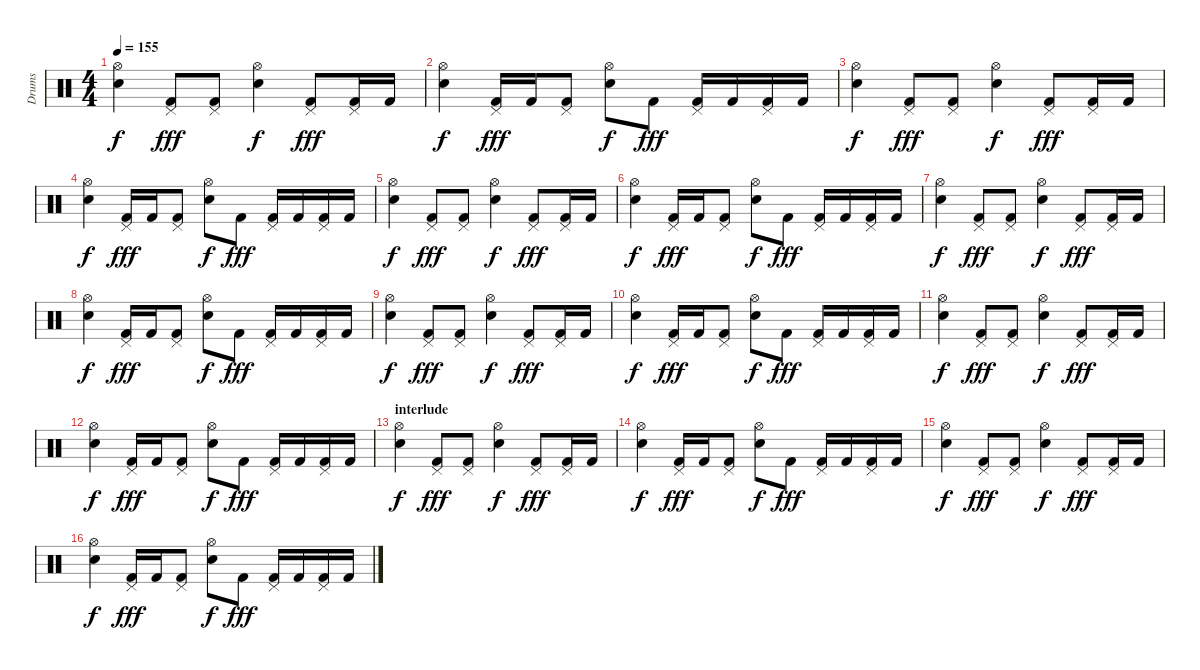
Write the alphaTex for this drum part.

\track ("Drums" "Drums") {instrument percussion}
\staff {score}
\articulation defaults
\ts (4 4)
\tempo 155
\clef neutral
\ks c
("Hi-Hat (open)" "Electric Snare (hit)").4{dy f} ("Pedal Hi-Hat (hit)" "Kick (hit) 2").8{dy fff} ("Pedal Hi-Hat (hit)" "Kick (hit) 2").8 ("Hi-Hat (open)" "Electric Snare (hit)").4{dy f} ("Pedal Hi-Hat (hit)" "Kick (hit) 2").8{dy fff} ("Pedal Hi-Hat (hit)" "Kick (hit) 2").16 "Kick (hit) 2".16 |
("Hi-Hat (open)" "Electric Snare (hit)").4{dy f} ("Pedal Hi-Hat (hit)" "Kick (hit) 2").16{dy fff} "Kick (hit) 2".16 ("Pedal Hi-Hat (hit)" "Kick (hit) 2").8 ("Hi-Hat (open)" "Electric Snare (hit)").8{dy f} "Kick (hit) 2".8{dy fff} ("Pedal Hi-Hat (hit)" "Kick (hit) 2").16 "Kick (hit) 2".16 ("Pedal Hi-Hat (hit)" "Kick (hit) 2").16 "Kick (hit) 2".16 |
("Hi-Hat (open)" "Electric Snare (hit)").4{dy f} ("Pedal Hi-Hat (hit)" "Kick (hit) 2").8{dy fff} ("Pedal Hi-Hat (hit)" "Kick (hit) 2").8 ("Hi-Hat (open)" "Electric Snare (hit)").4{dy f} ("Pedal Hi-Hat (hit)" "Kick (hit) 2").8{dy fff} ("Pedal Hi-Hat (hit)" "Kick (hit) 2").16 "Kick (hit) 2".16 |
("Hi-Hat (open)" "Electric Snare (hit)").4{dy f} ("Pedal Hi-Hat (hit)" "Kick (hit) 2").16{dy fff} "Kick (hit) 2".16 ("Pedal Hi-Hat (hit)" "Kick (hit) 2").8 ("Hi-Hat (open)" "Electric Snare (hit)").8{dy f} "Kick (hit) 2".8{dy fff} ("Pedal Hi-Hat (hit)" "Kick (hit) 2").16 "Kick (hit) 2".16 ("Pedal Hi-Hat (hit)" "Kick (hit) 2").16 "Kick (hit) 2".16 |
("Hi-Hat (open)" "Electric Snare (hit)").4{dy f} ("Pedal Hi-Hat (hit)" "Kick (hit) 2").8{dy fff} ("Pedal Hi-Hat (hit)" "Kick (hit) 2").8 ("Hi-Hat (open)" "Electric Snare (hit)").4{dy f} ("Pedal Hi-Hat (hit)" "Kick (hit) 2").8{dy fff} ("Pedal Hi-Hat (hit)" "Kick (hit) 2").16 "Kick (hit) 2".16 |
("Hi-Hat (open)" "Electric Snare (hit)").4{dy f} ("Pedal Hi-Hat (hit)" "Kick (hit) 2").16{dy fff} "Kick (hit) 2".16 ("Pedal Hi-Hat (hit)" "Kick (hit) 2").8 ("Hi-Hat (open)" "Electric Snare (hit)").8{dy f} "Kick (hit) 2".8{dy fff} ("Pedal Hi-Hat (hit)" "Kick (hit) 2").16 "Kick (hit) 2".16 ("Pedal Hi-Hat (hit)" "Kick (hit) 2").16 "Kick (hit) 2".16 |
("Hi-Hat (open)" "Electric Snare (hit)").4{dy f} ("Pedal Hi-Hat (hit)" "Kick (hit) 2").8{dy fff} ("Pedal Hi-Hat (hit)" "Kick (hit) 2").8 ("Hi-Hat (open)" "Electric Snare (hit)").4{dy f} ("Pedal Hi-Hat (hit)" "Kick (hit) 2").8{dy fff} ("Pedal Hi-Hat (hit)" "Kick (hit) 2").16 "Kick (hit) 2".16 |
("Hi-Hat (open)" "Electric Snare (hit)").4{dy f} ("Pedal Hi-Hat (hit)" "Kick (hit) 2").16{dy fff} "Kick (hit) 2".16 ("Pedal Hi-Hat (hit)" "Kick (hit) 2").8 ("Hi-Hat (open)" "Electric Snare (hit)").8{dy f} "Kick (hit) 2".8{dy fff} ("Pedal Hi-Hat (hit)" "Kick (hit) 2").16 "Kick (hit) 2".16 ("Pedal Hi-Hat (hit)" "Kick (hit) 2").16 "Kick (hit) 2".16 |
("Hi-Hat (open)" "Electric Snare (hit)").4{dy f} ("Pedal Hi-Hat (hit)" "Kick (hit) 2").8{dy fff} ("Pedal Hi-Hat (hit)" "Kick (hit) 2").8 ("Hi-Hat (open)" "Electric Snare (hit)").4{dy f} ("Pedal Hi-Hat (hit)" "Kick (hit) 2").8{dy fff} ("Pedal Hi-Hat (hit)" "Kick (hit) 2").16 "Kick (hit) 2".16 |
("Hi-Hat (open)" "Electric Snare (hit)").4{dy f} ("Pedal Hi-Hat (hit)" "Kick (hit) 2").16{dy fff} "Kick (hit) 2".16 ("Pedal Hi-Hat (hit)" "Kick (hit) 2").8 ("Hi-Hat (open)" "Electric Snare (hit)").8{dy f} "Kick (hit) 2".8{dy fff} ("Pedal Hi-Hat (hit)" "Kick (hit) 2").16 "Kick (hit) 2".16 ("Pedal Hi-Hat (hit)" "Kick (hit) 2").16 "Kick (hit) 2".16 |
("Hi-Hat (open)" "Electric Snare (hit)").4{dy f} ("Pedal Hi-Hat (hit)" "Kick (hit) 2").8{dy fff} ("Pedal Hi-Hat (hit)" "Kick (hit) 2").8 ("Hi-Hat (open)" "Electric Snare (hit)").4{dy f} ("Pedal Hi-Hat (hit)" "Kick (hit) 2").8{dy fff} ("Pedal Hi-Hat (hit)" "Kick (hit) 2").16 "Kick (hit) 2".16 |
("Hi-Hat (open)" "Electric Snare (hit)").4{dy f} ("Pedal Hi-Hat (hit)" "Kick (hit) 2").16{dy fff} "Kick (hit) 2".16 ("Pedal Hi-Hat (hit)" "Kick (hit) 2").8 ("Hi-Hat (open)" "Electric Snare (hit)").8{dy f} "Kick (hit) 2".8{dy fff} ("Pedal Hi-Hat (hit)" "Kick (hit) 2").16 "Kick (hit) 2".16 ("Pedal Hi-Hat (hit)" "Kick (hit) 2").16 "Kick (hit) 2".16 |
\section ("" "interlude")
("Hi-Hat (open)" "Electric Snare (hit)").4{dy f} ("Pedal Hi-Hat (hit)" "Kick (hit) 2").8{dy fff} ("Pedal Hi-Hat (hit)" "Kick (hit) 2").8 ("Hi-Hat (open)" "Electric Snare (hit)").4{dy f} ("Pedal Hi-Hat (hit)" "Kick (hit) 2").8{dy fff} ("Pedal Hi-Hat (hit)" "Kick (hit) 2").16 "Kick (hit) 2".16 |
("Hi-Hat (open)" "Electric Snare (hit)").4{dy f} ("Pedal Hi-Hat (hit)" "Kick (hit) 2").16{dy fff} "Kick (hit) 2".16 ("Pedal Hi-Hat (hit)" "Kick (hit) 2").8 ("Hi-Hat (open)" "Electric Snare (hit)").8{dy f} "Kick (hit) 2".8{dy fff} ("Pedal Hi-Hat (hit)" "Kick (hit) 2").16 "Kick (hit) 2".16 ("Pedal Hi-Hat (hit)" "Kick (hit) 2").16 "Kick (hit) 2".16 |
("Hi-Hat (open)" "Electric Snare (hit)").4{dy f} ("Pedal Hi-Hat (hit)" "Kick (hit) 2").8{dy fff} ("Pedal Hi-Hat (hit)" "Kick (hit) 2").8 ("Hi-Hat (open)" "Electric Snare (hit)").4{dy f} ("Pedal Hi-Hat (hit)" "Kick (hit) 2").8{dy fff} ("Pedal Hi-Hat (hit)" "Kick (hit) 2").16 "Kick (hit) 2".16 |
("Hi-Hat (open)" "Electric Snare (hit)").4{dy f} ("Pedal Hi-Hat (hit)" "Kick (hit) 2").16{dy fff} "Kick (hit) 2".16 ("Pedal Hi-Hat (hit)" "Kick (hit) 2").8 ("Hi-Hat (open)" "Electric Snare (hit)").8{dy f} "Kick (hit) 2".8{dy fff} ("Pedal Hi-Hat (hit)" "Kick (hit) 2").16 "Kick (hit) 2".16 ("Pedal Hi-Hat (hit)" "Kick (hit) 2").16 "Kick (hit) 2".16
